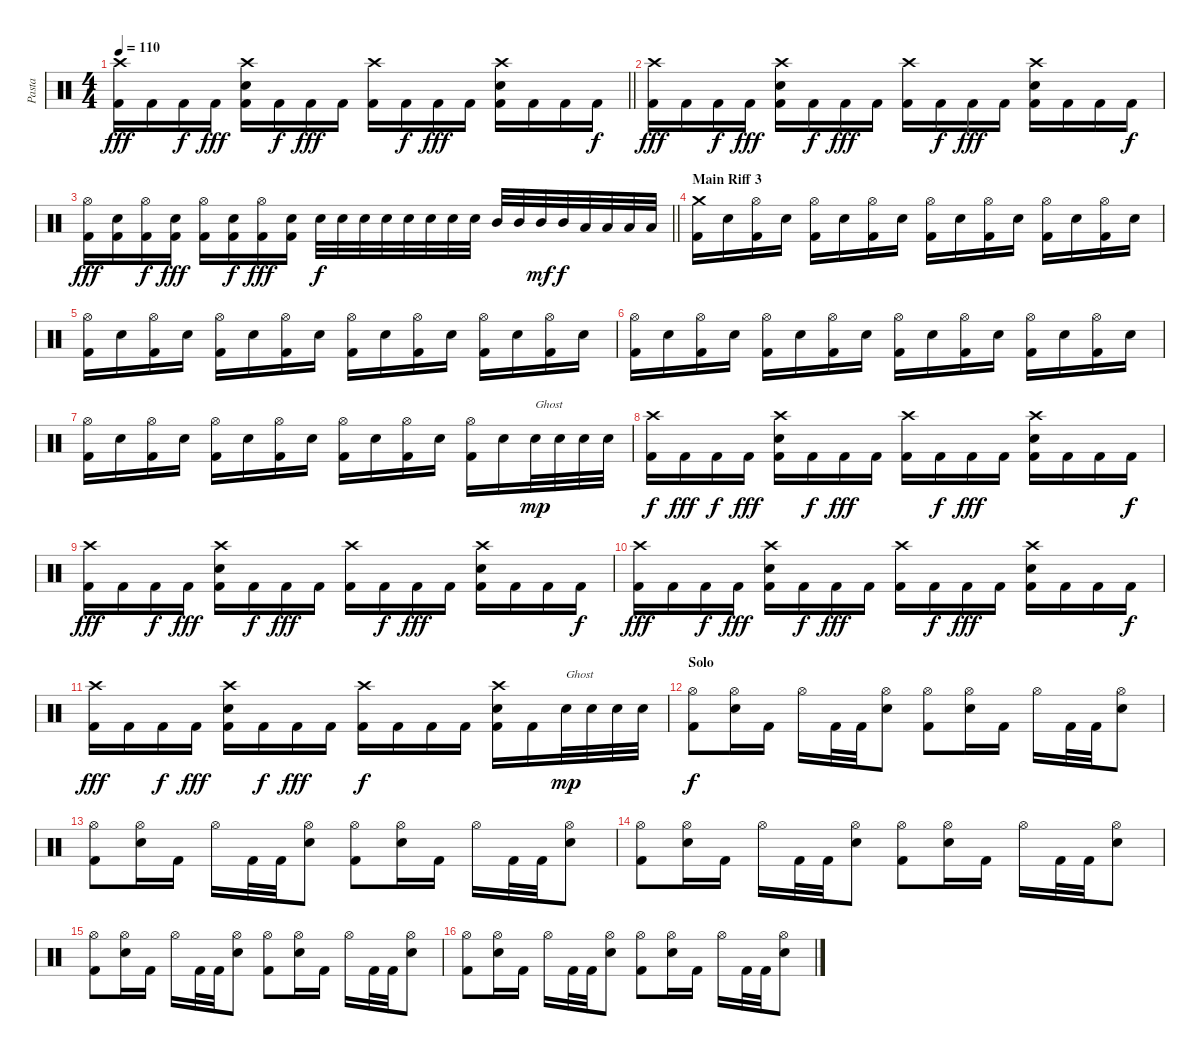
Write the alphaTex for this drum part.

\track ("Pasta" "Pasta") {instrument percussion}
\staff {score}
\articulation defaults
\ts (4 4)
\tempo 110
\clef neutral
\barLineRight lightlight
\ks c
("Crash high (hit)" "Kick (hit) 2").16{dy fff} "Kick (hit) 2".16 "Kick (hit) 2".16{dy f} "Kick (hit) 2".16{dy fff} ("Crash high (hit)" "Electric Snare (hit)" "Kick (hit) 2").16 "Kick (hit) 2".16{dy f} "Kick (hit) 2".16{dy fff} "Kick (hit) 2".16 ("Crash high (hit)" "Kick (hit) 2").16 "Kick (hit) 2".16{dy f} "Kick (hit) 2".16{dy fff} "Kick (hit) 2".16 ("Crash high (hit)" "Electric Snare (hit)" "Kick (hit) 2").16 "Kick (hit) 2".16 "Kick (hit) 2".16 "Kick (hit) 2".16{dy f} |
("Crash high (hit)" "Kick (hit) 2").16{dy fff} "Kick (hit) 2".16 "Kick (hit) 2".16{dy f} "Kick (hit) 2".16{dy fff} ("Crash high (hit)" "Electric Snare (hit)" "Kick (hit) 2").16 "Kick (hit) 2".16{dy f} "Kick (hit) 2".16{dy fff} "Kick (hit) 2".16 ("Crash high (hit)" "Kick (hit) 2").16 "Kick (hit) 2".16{dy f} "Kick (hit) 2".16{dy fff} "Kick (hit) 2".16 ("Crash high (hit)" "Electric Snare (hit)" "Kick (hit) 2").16 "Kick (hit) 2".16 "Kick (hit) 2".16 "Kick (hit) 2".16{dy f} |
\barLineRight lightlight
("Hi-Hat (open)" "Kick (hit) 2").16{dy fff} ("Electric Snare (hit)" "Kick (hit) 2").16 ("Hi-Hat (open)" "Kick (hit) 2").16{dy f} ("Electric Snare (hit)" "Kick (hit) 2").16{dy fff} ("Hi-Hat (open)" "Kick (hit) 2").16 ("Electric Snare (hit)" "Kick (hit) 2").16{dy f} ("Hi-Hat (open)" "Kick (hit) 2").16{dy fff} ("Electric Snare (hit)" "Kick (hit) 2").16 "Electric Snare (hit)".32{dy f} "Electric Snare (hit)".32 "Electric Snare (hit)".32 "Electric Snare (hit)".32 "Electric Snare (hit)".32 "Electric Snare (hit)".32 "Electric Snare (hit)".32 "Electric Snare (hit)".32 "Mid Tom (hit)".32 "Mid Tom (hit)".32 "Mid Tom (hit)".32{dy mf} "Mid Tom (hit)".32{dy f} "Low Tom (hit)".32 "Low Tom (hit)".32 "Low Tom (hit)".32 "Low Tom (hit)".32 |
\section ("" "Main Riff 3")
("Crash medium (hit)" "Kick (hit) 2").16 "Electric Snare (hit)".16 ("Hi-Hat (open)" "Kick (hit) 2").16 "Electric Snare (hit)".16 ("Hi-Hat (open)" "Kick (hit) 2").16 "Electric Snare (hit)".16 ("Hi-Hat (open)" "Kick (hit) 2").16 "Electric Snare (hit)".16 ("Hi-Hat (open)" "Kick (hit) 2").16 "Electric Snare (hit)".16 ("Hi-Hat (open)" "Kick (hit) 2").16 "Electric Snare (hit)".16 ("Hi-Hat (open)" "Kick (hit) 2").16 "Electric Snare (hit)".16 ("Hi-Hat (open)" "Kick (hit) 2").16 "Electric Snare (hit)".16 |
("Hi-Hat (open)" "Kick (hit) 2").16 "Electric Snare (hit)".16 ("Hi-Hat (open)" "Kick (hit) 2").16 "Electric Snare (hit)".16 ("Hi-Hat (open)" "Kick (hit) 2").16 "Electric Snare (hit)".16 ("Hi-Hat (open)" "Kick (hit) 2").16 "Electric Snare (hit)".16 ("Hi-Hat (open)" "Kick (hit) 2").16 "Electric Snare (hit)".16 ("Hi-Hat (open)" "Kick (hit) 2").16 "Electric Snare (hit)".16 ("Hi-Hat (open)" "Kick (hit) 2").16 "Electric Snare (hit)".16 ("Hi-Hat (open)" "Kick (hit) 2").16 "Electric Snare (hit)".16 |
("Hi-Hat (open)" "Kick (hit) 2").16 "Electric Snare (hit)".16 ("Hi-Hat (open)" "Kick (hit) 2").16 "Electric Snare (hit)".16 ("Hi-Hat (open)" "Kick (hit) 2").16 "Electric Snare (hit)".16 ("Hi-Hat (open)" "Kick (hit) 2").16 "Electric Snare (hit)".16 ("Hi-Hat (open)" "Kick (hit) 2").16 "Electric Snare (hit)".16 ("Hi-Hat (open)" "Kick (hit) 2").16 "Electric Snare (hit)".16 ("Hi-Hat (open)" "Kick (hit) 2").16 "Electric Snare (hit)".16 ("Hi-Hat (open)" "Kick (hit) 2").16 "Electric Snare (hit)".16 |
("Hi-Hat (open)" "Kick (hit) 2").16 "Electric Snare (hit)".16 ("Hi-Hat (open)" "Kick (hit) 2").16 "Electric Snare (hit)".16 ("Hi-Hat (open)" "Kick (hit) 2").16 "Electric Snare (hit)".16 ("Hi-Hat (open)" "Kick (hit) 2").16 "Electric Snare (hit)".16 ("Hi-Hat (open)" "Kick (hit) 2").16 "Electric Snare (hit)".16 ("Hi-Hat (open)" "Kick (hit) 2").16 "Electric Snare (hit)".16 ("Hi-Hat (open)" "Kick (hit) 2").16 "Electric Snare (hit)".16 "Electric Snare (hit)".32{txt "Ghost" dy mp} "Electric Snare (hit)".32 "Electric Snare (hit)".32 "Electric Snare (hit)".32 |
("Crash high (hit)" "Kick (hit) 2").16{dy f} "Kick (hit) 2".16{dy fff} "Kick (hit) 2".16{dy f} "Kick (hit) 2".16{dy fff} ("Crash high (hit)" "Electric Snare (hit)" "Kick (hit) 2").16 "Kick (hit) 2".16{dy f} "Kick (hit) 2".16{dy fff} "Kick (hit) 2".16 ("Crash high (hit)" "Kick (hit) 2").16 "Kick (hit) 2".16{dy f} "Kick (hit) 2".16{dy fff} "Kick (hit) 2".16 ("Crash high (hit)" "Electric Snare (hit)" "Kick (hit) 2").16 "Kick (hit) 2".16 "Kick (hit) 2".16 "Kick (hit) 2".16{dy f} |
("Crash high (hit)" "Kick (hit) 2").16{dy fff} "Kick (hit) 2".16 "Kick (hit) 2".16{dy f} "Kick (hit) 2".16{dy fff} ("Crash high (hit)" "Electric Snare (hit)" "Kick (hit) 2").16 "Kick (hit) 2".16{dy f} "Kick (hit) 2".16{dy fff} "Kick (hit) 2".16 ("Crash high (hit)" "Kick (hit) 2").16 "Kick (hit) 2".16{dy f} "Kick (hit) 2".16{dy fff} "Kick (hit) 2".16 ("Crash high (hit)" "Electric Snare (hit)" "Kick (hit) 2").16 "Kick (hit) 2".16 "Kick (hit) 2".16 "Kick (hit) 2".16{dy f} |
("Crash high (hit)" "Kick (hit) 2").16{dy fff} "Kick (hit) 2".16 "Kick (hit) 2".16{dy f} "Kick (hit) 2".16{dy fff} ("Crash high (hit)" "Electric Snare (hit)" "Kick (hit) 2").16 "Kick (hit) 2".16{dy f} "Kick (hit) 2".16{dy fff} "Kick (hit) 2".16 ("Crash high (hit)" "Kick (hit) 2").16 "Kick (hit) 2".16{dy f} "Kick (hit) 2".16{dy fff} "Kick (hit) 2".16 ("Crash high (hit)" "Electric Snare (hit)" "Kick (hit) 2").16 "Kick (hit) 2".16 "Kick (hit) 2".16 "Kick (hit) 2".16{dy f} |
("Crash high (hit)" "Kick (hit) 2").16{dy fff} "Kick (hit) 2".16 "Kick (hit) 2".16{dy f} "Kick (hit) 2".16{dy fff} ("Crash high (hit)" "Electric Snare (hit)" "Kick (hit) 2").16 "Kick (hit) 2".16{dy f} "Kick (hit) 2".16{dy fff} "Kick (hit) 2".16 ("Crash high (hit)" "Kick (hit) 2").16{dy f} "Kick (hit) 2".16 "Kick (hit) 2".16 "Kick (hit) 2".16 ("Crash high (hit)" "Electric Snare (hit)" "Kick (hit) 2").16 "Kick (hit) 2".16 "Electric Snare (hit)".32{txt "Ghost" dy mp} "Electric Snare (hit)".32 "Electric Snare (hit)".32 "Electric Snare (hit)".32 |
\section ("" "Solo")
("Hi-Hat (open)" "Kick (hit) 2").8{dy f} ("Hi-Hat (open)" "Electric Snare (hit)").16 "Kick (hit) 2".16 "Hi-Hat (open)".16 "Kick (hit) 2".32 "Kick (hit) 2".32 ("Hi-Hat (open)" "Electric Snare (hit)").8 ("Hi-Hat (open)" "Kick (hit) 2").8 ("Hi-Hat (open)" "Electric Snare (hit)").16 "Kick (hit) 2".16 "Hi-Hat (open)".16 "Kick (hit) 2".32 "Kick (hit) 2".32 ("Hi-Hat (open)" "Electric Snare (hit)").8 |
("Hi-Hat (open)" "Kick (hit) 2").8 ("Hi-Hat (open)" "Electric Snare (hit)").16 "Kick (hit) 2".16 "Hi-Hat (open)".16 "Kick (hit) 2".32 "Kick (hit) 2".32 ("Hi-Hat (open)" "Electric Snare (hit)").8 ("Hi-Hat (open)" "Kick (hit) 2").8 ("Hi-Hat (open)" "Electric Snare (hit)").16 "Kick (hit) 2".16 "Hi-Hat (open)".16 "Kick (hit) 2".32 "Kick (hit) 2".32 ("Hi-Hat (open)" "Electric Snare (hit)").8 |
("Hi-Hat (open)" "Kick (hit) 2").8 ("Hi-Hat (open)" "Electric Snare (hit)").16 "Kick (hit) 2".16 "Hi-Hat (open)".16 "Kick (hit) 2".32 "Kick (hit) 2".32 ("Hi-Hat (open)" "Electric Snare (hit)").8 ("Hi-Hat (open)" "Kick (hit) 2").8 ("Hi-Hat (open)" "Electric Snare (hit)").16 "Kick (hit) 2".16 "Hi-Hat (open)".16 "Kick (hit) 2".32 "Kick (hit) 2".32 ("Hi-Hat (open)" "Electric Snare (hit)").8 |
("Hi-Hat (open)" "Kick (hit) 2").8 ("Hi-Hat (open)" "Electric Snare (hit)").16 "Kick (hit) 2".16 "Hi-Hat (open)".16 "Kick (hit) 2".32 "Kick (hit) 2".32 ("Hi-Hat (open)" "Electric Snare (hit)").8 ("Hi-Hat (open)" "Kick (hit) 2").8 ("Hi-Hat (open)" "Electric Snare (hit)").16 "Kick (hit) 2".16 "Hi-Hat (open)".16 "Kick (hit) 2".32 "Kick (hit) 2".32 ("Hi-Hat (open)" "Electric Snare (hit)").8 |
("Hi-Hat (open)" "Kick (hit) 2").8 ("Hi-Hat (open)" "Electric Snare (hit)").16 "Kick (hit) 2".16 "Hi-Hat (open)".16 "Kick (hit) 2".32 "Kick (hit) 2".32 ("Hi-Hat (open)" "Electric Snare (hit)").8 ("Hi-Hat (open)" "Kick (hit) 2").8 ("Hi-Hat (open)" "Electric Snare (hit)").16 "Kick (hit) 2".16 "Hi-Hat (open)".16 "Kick (hit) 2".32 "Kick (hit) 2".32 ("Hi-Hat (open)" "Electric Snare (hit)").8
